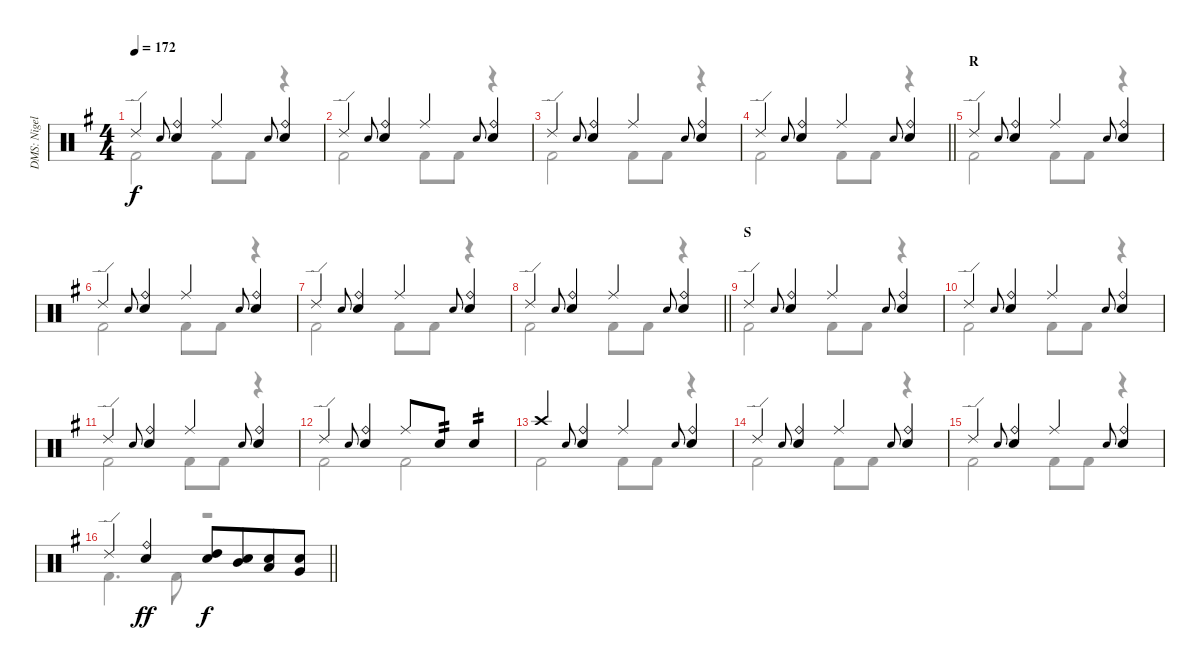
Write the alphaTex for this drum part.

\track ("DMS: Nigel Olsson" "DMS: Nigel") {instrument percussion}
\staff {score}
\articulation defaults
\voice
\ts (4 4)
\tempo 172
\clef neutral
\ks g "Ride (edge) 2".4{dy f} "Snare (hit) 2".8{gr onbeat}
("Ride (bell)" "Electric Snare (hit)").4 "Ride (middle)".4 "Snare (hit) 2".8{gr onbeat} ("Ride (bell)" "Electric Snare (hit)").4 |
"Ride (edge) 2".4 "Snare (hit) 2".8{gr onbeat} ("Ride (bell)" "Electric Snare (hit)").4 "Ride (middle)".4 "Snare (hit) 2".8{gr onbeat} ("Ride (bell)" "Electric Snare (hit)").4 |
"Ride (edge) 2".4 "Snare (hit) 2".8{gr onbeat} ("Ride (bell)" "Electric Snare (hit)").4 "Ride (middle)".4 "Snare (hit) 2".8{gr onbeat} ("Ride (bell)" "Electric Snare (hit)").4 |
\barLineRight lightlight "Ride (edge) 2".4 "Snare (hit) 2".8{gr onbeat}
("Ride (bell)" "Electric Snare (hit)").4 "Ride (middle)".4 "Snare (hit) 2".8{gr onbeat} ("Ride (bell)" "Electric Snare (hit)").4 |
\section ("" "R")
"Ride (edge) 2".4 "Snare (hit) 2".8{gr onbeat} ("Ride (bell)" "Electric Snare (hit)").4 "Ride (middle)".4 "Snare (hit) 2".8{gr onbeat} ("Ride (bell)" "Electric Snare (hit)").4 |
"Ride (edge) 2".4 "Snare (hit) 2".8{gr onbeat} ("Ride (bell)" "Electric Snare (hit)").4 "Ride (middle)".4 "Snare (hit) 2".8{gr onbeat} ("Ride (bell)" "Electric Snare (hit)").4 |
"Ride (edge) 2".4 "Snare (hit) 2".8{gr onbeat} ("Ride (bell)" "Electric Snare (hit)").4 "Ride (middle)".4 "Snare (hit) 2".8{gr onbeat} ("Ride (bell)" "Electric Snare (hit)").4 |
\barLineRight lightlight "Ride (edge) 2".4 "Snare (hit) 2".8{gr onbeat}
("Ride (bell)" "Electric Snare (hit)").4 "Ride (middle)".4 "Snare (hit) 2".8{gr onbeat} ("Ride (bell)" "Electric Snare (hit)").4 |
\section ("" "S")
"Ride (edge) 2".4 "Snare (hit) 2".8{gr onbeat} ("Ride (bell)" "Electric Snare (hit)").4 "Ride (middle)".4 "Snare (hit) 2".8{gr onbeat} ("Ride (bell)" "Electric Snare (hit)").4 |
"Ride (edge) 2".4 "Snare (hit) 2".8{gr onbeat} ("Ride (bell)" "Electric Snare (hit)").4 "Ride (middle)".4 "Snare (hit) 2".8{gr onbeat} ("Ride (bell)" "Electric Snare (hit)").4 |
"Ride (edge) 2".4 "Snare (hit) 2".8{gr onbeat} ("Ride (bell)" "Electric Snare (hit)").4 "Ride (middle)".4 "Snare (hit) 2".8{gr onbeat} ("Ride (bell)" "Electric Snare (hit)").4 |
"Ride (edge) 2".4 "Snare (hit) 2".8{gr onbeat} ("Ride (bell)" "Electric Snare (hit)").4 "Ride (middle)".8 "Electric Snare (hit)".8{tp 2} "Snare (hit) 2".4{tp 2} |
"Crash high (hit)".4 "Snare (hit) 2".8{gr onbeat} ("Ride (bell)" "Electric Snare (hit)").4 "Ride (middle)".4 "Snare (hit) 2".8{gr onbeat} ("Ride (bell)" "Electric Snare (hit)").4 |
"Ride (edge) 2".4 "Snare (hit) 2".8{gr onbeat} ("Ride (bell)" "Electric Snare (hit)").4 "Ride (middle)".4 "Snare (hit) 2".8{gr onbeat} ("Ride (bell)" "Electric Snare (hit)").4 |
"Ride (edge) 2".4 "Snare (hit) 2".8{gr onbeat} ("Ride (bell)" "Electric Snare (hit)").4 "Ride (middle)".4 "Snare (hit) 2".8{gr onbeat} ("Ride (bell)" "Electric Snare (hit)").4 |
\barLineRight lightlight "Ride (edge) 2".4
("Ride (bell)" "Electric Snare (hit)").4{dy ff} ("Electric Snare (hit)" "High Tom (hit)").8{dy f} ("Electric Snare (hit)" "Mid Tom (hit)").8{beam merge} ("Electric Snare (hit)" "Low Tom (hit)").8 ("Electric Snare (hit)" "Very Low Tom (hit)").8
\voice
\clef neutral
\ottava regular
\simile none
\ks g "Kick (hit) 2".2{dy f} "Kick (hit) 2".8 "Kick (hit) 2".8
r.4 |
"Kick (hit) 2".2 "Kick (hit) 2".8 "Kick (hit) 2".8 r.4 |
"Kick (hit) 2".2 "Kick (hit) 2".8 "Kick (hit) 2".8 r.4 |
\barLineRight lightlight "Kick (hit) 2".2 "Kick (hit) 2".8 "Kick (hit) 2".8
r.4 |
"Kick (hit) 2".2 "Kick (hit) 2".8 "Kick (hit) 2".8 r.4 |
"Kick (hit) 2".2 "Kick (hit) 2".8 "Kick (hit) 2".8 r.4 |
"Kick (hit) 2".2 "Kick (hit) 2".8 "Kick (hit) 2".8 r.4 |
\barLineRight lightlight "Kick (hit) 2".2 "Kick (hit) 2".8 "Kick (hit) 2".8
r.4 |
"Kick (hit) 2".2 "Kick (hit) 2".8 "Kick (hit) 2".8 r.4 |
"Kick (hit) 2".2 "Kick (hit) 2".8 "Kick (hit) 2".8 r.4 |
"Kick (hit) 2".2 "Kick (hit) 2".8 "Kick (hit) 2".8 r.4 |
"Kick (hit) 2".2 "Kick (hit) 2".2 |
"Kick (hit) 2".2 "Kick (hit) 2".8 "Kick (hit) 2".8 r.4 |
"Kick (hit) 2".2 "Kick (hit) 2".8 "Kick (hit) 2".8 r.4 |
"Kick (hit) 2".2 "Kick (hit) 2".8 "Kick (hit) 2".8 r.4 |
\barLineRight lightlight "Kick (hit) 2".4{d} "Kick (hit) 2".8
r.2
